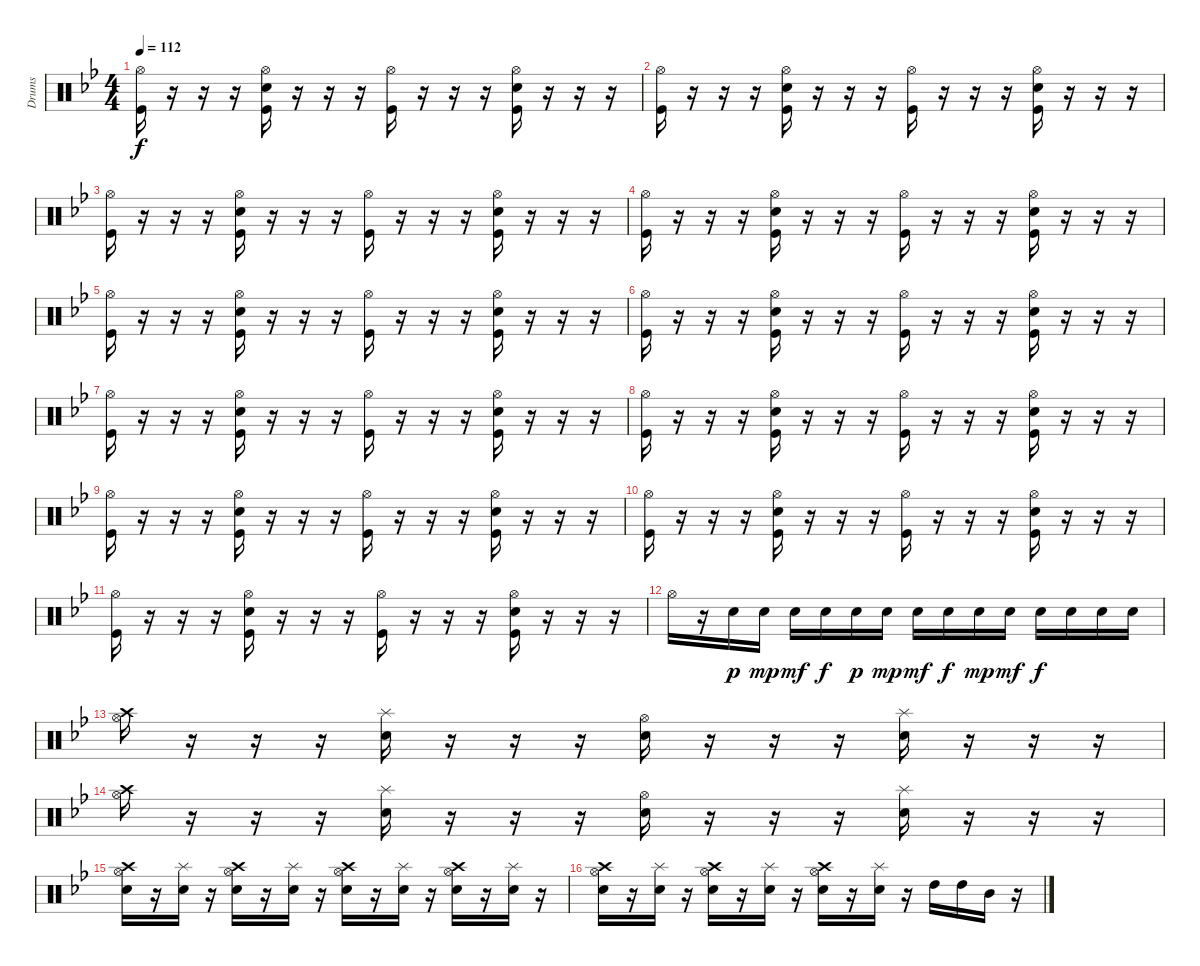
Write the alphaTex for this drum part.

\track ("Drums" "Drums") {instrument percussion}
\staff {score}
\articulation defaults
\ts (4 4)
\tempo 112
\clef neutral
\ks bb
("Hi-Hat (open)" "Kick (hit)").16{dy f} r.16 r.16 r.16 ("Hi-Hat (open)" "Electric Snare (hit)" "Kick (hit)").16 r.16 r.16 r.16 ("Hi-Hat (open)" "Kick (hit)").16 r.16 r.16 r.16 ("Hi-Hat (open)" "Electric Snare (hit)" "Kick (hit)").16 r.16 r.16 r.16 |
("Hi-Hat (open)" "Kick (hit)").16 r.16 r.16 r.16 ("Hi-Hat (open)" "Electric Snare (hit)" "Kick (hit)").16 r.16 r.16 r.16 ("Hi-Hat (open)" "Kick (hit)").16 r.16 r.16 r.16 ("Hi-Hat (open)" "Electric Snare (hit)" "Kick (hit)").16 r.16 r.16 r.16 |
("Hi-Hat (open)" "Kick (hit)").16 r.16 r.16 r.16 ("Hi-Hat (open)" "Electric Snare (hit)" "Kick (hit)").16 r.16 r.16 r.16 ("Hi-Hat (open)" "Kick (hit)").16 r.16 r.16 r.16 ("Hi-Hat (open)" "Electric Snare (hit)" "Kick (hit)").16 r.16 r.16 r.16 |
("Hi-Hat (open)" "Kick (hit)").16 r.16 r.16 r.16 ("Hi-Hat (open)" "Electric Snare (hit)" "Kick (hit)").16 r.16 r.16 r.16 ("Hi-Hat (open)" "Kick (hit)").16 r.16 r.16 r.16 ("Hi-Hat (open)" "Electric Snare (hit)" "Kick (hit)").16 r.16 r.16 r.16 |
("Hi-Hat (open)" "Kick (hit)").16 r.16 r.16 r.16 ("Hi-Hat (open)" "Electric Snare (hit)" "Kick (hit)").16 r.16 r.16 r.16 ("Hi-Hat (open)" "Kick (hit)").16 r.16 r.16 r.16 ("Hi-Hat (open)" "Electric Snare (hit)" "Kick (hit)").16 r.16 r.16 r.16 |
("Hi-Hat (open)" "Kick (hit)").16 r.16 r.16 r.16 ("Hi-Hat (open)" "Electric Snare (hit)" "Kick (hit)").16 r.16 r.16 r.16 ("Hi-Hat (open)" "Kick (hit)").16 r.16 r.16 r.16 ("Hi-Hat (open)" "Electric Snare (hit)" "Kick (hit)").16 r.16 r.16 r.16 |
("Hi-Hat (open)" "Kick (hit)").16 r.16 r.16 r.16 ("Hi-Hat (open)" "Electric Snare (hit)" "Kick (hit)").16 r.16 r.16 r.16 ("Hi-Hat (open)" "Kick (hit)").16 r.16 r.16 r.16 ("Hi-Hat (open)" "Electric Snare (hit)" "Kick (hit)").16 r.16 r.16 r.16 |
("Hi-Hat (open)" "Kick (hit)").16 r.16 r.16 r.16 ("Hi-Hat (open)" "Electric Snare (hit)" "Kick (hit)").16 r.16 r.16 r.16 ("Hi-Hat (open)" "Kick (hit)").16 r.16 r.16 r.16 ("Hi-Hat (open)" "Electric Snare (hit)" "Kick (hit)").16 r.16 r.16 r.16 |
("Hi-Hat (open)" "Kick (hit)").16 r.16 r.16 r.16 ("Hi-Hat (open)" "Electric Snare (hit)" "Kick (hit)").16 r.16 r.16 r.16 ("Hi-Hat (open)" "Kick (hit)").16 r.16 r.16 r.16 ("Hi-Hat (open)" "Electric Snare (hit)" "Kick (hit)").16 r.16 r.16 r.16 |
("Hi-Hat (open)" "Kick (hit)").16 r.16 r.16 r.16 ("Hi-Hat (open)" "Electric Snare (hit)" "Kick (hit)").16 r.16 r.16 r.16 ("Hi-Hat (open)" "Kick (hit)").16 r.16 r.16 r.16 ("Hi-Hat (open)" "Electric Snare (hit)" "Kick (hit)").16 r.16 r.16 r.16 |
("Hi-Hat (open)" "Kick (hit)").16 r.16 r.16 r.16 ("Hi-Hat (open)" "Electric Snare (hit)" "Kick (hit)").16 r.16 r.16 r.16 ("Hi-Hat (open)" "Kick (hit)").16 r.16 r.16 r.16 ("Hi-Hat (open)" "Electric Snare (hit)" "Kick (hit)").16 r.16 r.16 r.16 |
"Hi-Hat (open)".16 r.16 "Electric Snare (hit)".16{dy p} "Electric Snare (hit)".16{dy mp} "Electric Snare (hit)".16{dy mf} "Electric Snare (hit)".16{dy f} "Electric Snare (hit)".16{dy p} "Electric Snare (hit)".16{dy mp} "Electric Snare (hit)".16{dy mf} "Electric Snare (hit)".16{dy f} "Electric Snare (hit)".16{dy mp} "Electric Snare (hit)".16{dy mf} "Electric Snare (hit)".16{dy f} "Electric Snare (hit)".16 "Electric Snare (hit)".16 "Electric Snare (hit)".16 |
("Hi-Hat (open)" "Crash high (hit)").16 r.16 r.16 r.16 ("Electric Snare (hit)" "Splash (hit)").16 r.16 r.16 r.16 ("Hi-Hat (open)" "Electric Snare (hit)").16 r.16 r.16 r.16 ("Electric Snare (hit)" "Splash (hit)").16 r.16 r.16 r.16 |
("Hi-Hat (open)" "Crash high (hit)").16 r.16 r.16 r.16 ("Electric Snare (hit)" "Splash (hit)").16 r.16 r.16 r.16 ("Hi-Hat (open)" "Electric Snare (hit)").16 r.16 r.16 r.16 ("Electric Snare (hit)" "Splash (hit)").16 r.16 r.16 r.16 |
("Hi-Hat (open)" "Electric Snare (hit)" "Crash high (hit)").16 r.16 ("Electric Snare (hit)" "Splash (hit)").16 r.16 ("Hi-Hat (open)" "Electric Snare (hit)" "Crash high (hit)").16 r.16 ("Electric Snare (hit)" "Splash (hit)").16 r.16 ("Hi-Hat (open)" "Electric Snare (hit)" "Crash high (hit)").16 r.16 ("Electric Snare (hit)" "Splash (hit)").16 r.16 ("Hi-Hat (open)" "Electric Snare (hit)" "Crash high (hit)").16 r.16 ("Electric Snare (hit)" "Splash (hit)").16 r.16 |
("Hi-Hat (open)" "Electric Snare (hit)" "Crash high (hit)").16 r.16 ("Electric Snare (hit)" "Splash (hit)").16 r.16 ("Hi-Hat (open)" "Electric Snare (hit)" "Crash high (hit)").16 r.16 ("Electric Snare (hit)" "Splash (hit)").16 r.16 ("Hi-Hat (open)" "Electric Snare (hit)" "Crash high (hit)").16 r.16 ("Electric Snare (hit)" "Splash (hit)").16 r.16 "High Tom (hit)".16 "High Tom (hit)".16 "Mid Tom (hit)".16 r.16
